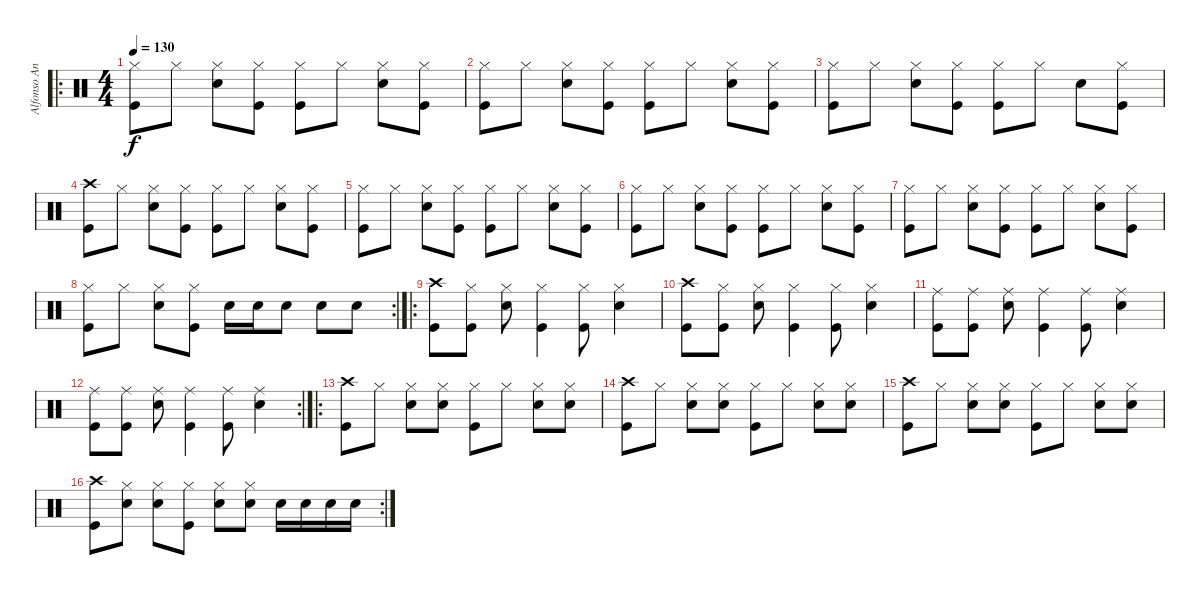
\track ("Alfonso Andre" "Alfonso An") {instrument percussion}
\staff {score}
\articulation defaults
\ro
\ts (4 4)
\tempo 130
\clef neutral
\ks c
("Kick (hit)" "Hi-Hat (closed)").8{dy f} "Hi-Hat (closed)".8 ("Snare (hit) 2" "Hi-Hat (closed)").8 ("Kick (hit)" "Hi-Hat (closed)").8 ("Kick (hit)" "Hi-Hat (closed)").8 "Hi-Hat (closed)".8 ("Snare (hit) 2" "Hi-Hat (closed)").8 ("Kick (hit)" "Hi-Hat (closed)").8 |
("Kick (hit)" "Hi-Hat (closed)").8 "Hi-Hat (closed)".8 ("Snare (hit) 2" "Hi-Hat (closed)").8 ("Kick (hit)" "Hi-Hat (closed)").8 ("Kick (hit)" "Hi-Hat (closed)").8 "Hi-Hat (closed)".8 ("Snare (hit) 2" "Hi-Hat (closed)").8 ("Kick (hit)" "Hi-Hat (closed)").8 |
("Kick (hit)" "Hi-Hat (closed)").8 "Hi-Hat (closed)".8 ("Snare (hit) 2" "Hi-Hat (closed)").8 ("Kick (hit)" "Hi-Hat (closed)").8 ("Kick (hit)" "Hi-Hat (closed)").8 "Hi-Hat (closed)".8 "Snare (hit) 2".8 ("Kick (hit)" "Hi-Hat (closed)").8 |
("Kick (hit)" "Crash high (hit)").8 "Hi-Hat (closed)".8 ("Snare (hit) 2" "Hi-Hat (closed)").8 ("Kick (hit)" "Hi-Hat (closed)").8 ("Kick (hit)" "Hi-Hat (closed)").8 "Hi-Hat (closed)".8 ("Snare (hit) 2" "Hi-Hat (closed)").8 ("Kick (hit)" "Hi-Hat (closed)").8 |
("Kick (hit)" "Hi-Hat (closed)").8 "Hi-Hat (closed)".8 ("Snare (hit) 2" "Hi-Hat (closed)").8 ("Kick (hit)" "Hi-Hat (closed)").8 ("Kick (hit)" "Hi-Hat (closed)").8 "Hi-Hat (closed)".8 ("Snare (hit) 2" "Hi-Hat (closed)").8 ("Kick (hit)" "Hi-Hat (closed)").8 |
("Kick (hit)" "Hi-Hat (closed)").8 "Hi-Hat (closed)".8 ("Snare (hit) 2" "Hi-Hat (closed)").8 ("Kick (hit)" "Hi-Hat (closed)").8 ("Kick (hit)" "Hi-Hat (closed)").8 "Hi-Hat (closed)".8 ("Snare (hit) 2" "Hi-Hat (closed)").8 ("Kick (hit)" "Hi-Hat (closed)").8 |
("Kick (hit)" "Hi-Hat (closed)").8 "Hi-Hat (closed)".8 ("Snare (hit) 2" "Hi-Hat (closed)").8 ("Kick (hit)" "Hi-Hat (closed)").8 ("Kick (hit)" "Hi-Hat (closed)").8 "Hi-Hat (closed)".8 ("Snare (hit) 2" "Hi-Hat (closed)").8 ("Kick (hit)" "Hi-Hat (closed)").8 |
\rc 2
("Kick (hit)" "Hi-Hat (closed)").8 "Hi-Hat (closed)".8 ("Snare (hit) 2" "Hi-Hat (closed)").8 ("Kick (hit)" "Hi-Hat (closed)").8 "Snare (hit) 2".16 "Snare (hit) 2".16 "Snare (hit) 2".8 "Snare (hit) 2".8 "Snare (hit) 2".8 |
\ro
("Kick (hit)" "Crash high (hit)").8 ("Kick (hit)" "Hi-Hat (closed)").8 ("Snare (hit) 2" "Hi-Hat (closed)").8 ("Kick (hit)" "Hi-Hat (closed)").4 ("Kick (hit)" "Hi-Hat (closed)").8 ("Snare (hit) 2" "Hi-Hat (closed)").4 |
("Kick (hit)" "Crash high (hit)").8 ("Kick (hit)" "Hi-Hat (closed)").8 ("Snare (hit) 2" "Hi-Hat (closed)").8 ("Kick (hit)" "Hi-Hat (closed)").4 ("Kick (hit)" "Hi-Hat (closed)").8 ("Snare (hit) 2" "Hi-Hat (closed)").4 |
("Kick (hit)" "Ride (middle)").8 ("Kick (hit)" "Ride (middle)").8 ("Snare (hit) 2" "Ride (middle)").8 ("Kick (hit)" "Ride (middle)").4 ("Kick (hit)" "Ride (middle)").8 ("Snare (hit) 2" "Ride (middle)").4 |
\rc 2
("Kick (hit)" "Ride (middle)").8 ("Kick (hit)" "Ride (middle)").8 ("Snare (hit) 2" "Ride (middle)").8 ("Kick (hit)" "Ride (middle)").4 ("Kick (hit)" "Ride (middle)").8 ("Snare (hit) 2" "Ride (middle)").4 |
\ro
("Kick (hit)" "Crash high (hit)").8 "Hi-Hat (closed)".8 ("Snare (hit) 2" "Hi-Hat (closed)").8 ("Snare (hit) 2" "Hi-Hat (closed)").8 ("Kick (hit)" "Hi-Hat (closed)").8 "Hi-Hat (closed)".8 ("Snare (hit) 2" "Hi-Hat (closed)").8 ("Snare (hit) 2" "Hi-Hat (closed)").8 |
("Kick (hit)" "Crash high (hit)").8 "Hi-Hat (closed)".8 ("Snare (hit) 2" "Hi-Hat (closed)").8 ("Snare (hit) 2" "Hi-Hat (closed)").8 ("Kick (hit)" "Hi-Hat (closed)").8 "Hi-Hat (closed)".8 ("Snare (hit) 2" "Hi-Hat (closed)").8 ("Snare (hit) 2" "Hi-Hat (closed)").8 |
("Kick (hit)" "Crash high (hit)").8 "Hi-Hat (closed)".8 ("Snare (hit) 2" "Hi-Hat (closed)").8 ("Snare (hit) 2" "Hi-Hat (closed)").8 ("Kick (hit)" "Hi-Hat (closed)").8 "Hi-Hat (closed)".8 ("Snare (hit) 2" "Hi-Hat (closed)").8 ("Snare (hit) 2" "Hi-Hat (closed)").8 |
\rc 2
("Kick (hit)" "Crash high (hit)").8 ("Snare (hit) 2" "Hi-Hat (closed)").8 ("Snare (hit) 2" "Hi-Hat (closed)").8 ("Kick (hit)" "Hi-Hat (closed)").8 ("Snare (hit) 2" "Hi-Hat (closed)").8 ("Snare (hit) 2" "Hi-Hat (closed)").8 "Snare (hit) 2".16 "Snare (hit) 2".16 "Snare (hit) 2".16 "Snare (hit) 2".16
